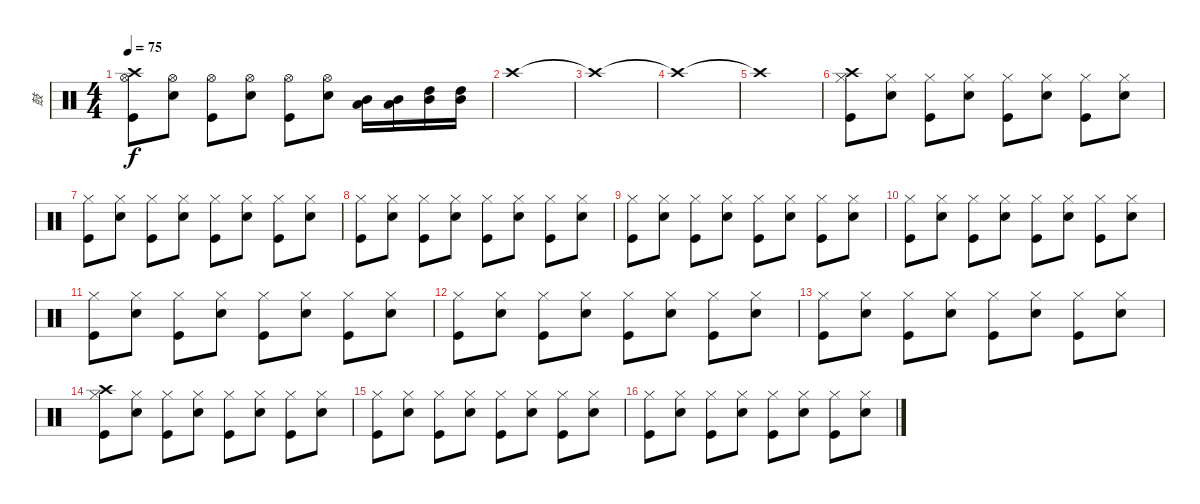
\track ("鼓" "鼓") {instrument percussion}
\staff {score}
\articulation defaults
\ts (4 4)
\tempo 75
\clef neutral
\ks c
("Crash high (hit)" "Hi-Hat (open)" "Kick (hit)").8{dy f} ("Hi-Hat (open)" "Electric Snare (hit)").8 ("Hi-Hat (open)" "Kick (hit)").8 ("Hi-Hat (open)" "Electric Snare (hit)").8 ("Hi-Hat (open)" "Kick (hit)").8 ("Hi-Hat (open)" "Electric Snare (hit)").8 ("Mid Tom (hit)" "Low Tom (hit)").16 ("Mid Tom (hit)" "Low Tom (hit)").16 ("High Tom (hit)" "Mid Tom (hit)").16 ("High Tom (hit)" "Mid Tom (hit)").16 |
"Crash high (hit)".1 |
"Crash high (hit)"{t}.1 |
"Crash high (hit)"{t}.1 |
"Crash high (hit)"{t}.1 |
("Crash high (hit)" "Hi-Hat (closed)" "Kick (hit)").8 ("Hi-Hat (closed)" "Electric Snare (hit)").8 ("Hi-Hat (closed)" "Kick (hit)").8 ("Hi-Hat (closed)" "Electric Snare (hit)").8 ("Hi-Hat (closed)" "Kick (hit)").8 ("Hi-Hat (closed)" "Electric Snare (hit)").8 ("Hi-Hat (closed)" "Kick (hit)").8 ("Hi-Hat (closed)" "Electric Snare (hit)").8 |
("Hi-Hat (closed)" "Kick (hit)").8 ("Hi-Hat (closed)" "Electric Snare (hit)").8 ("Hi-Hat (closed)" "Kick (hit)").8 ("Hi-Hat (closed)" "Electric Snare (hit)").8 ("Hi-Hat (closed)" "Kick (hit)").8 ("Hi-Hat (closed)" "Electric Snare (hit)").8 ("Hi-Hat (closed)" "Kick (hit)").8 ("Hi-Hat (closed)" "Electric Snare (hit)").8 |
("Hi-Hat (closed)" "Kick (hit)").8 ("Hi-Hat (closed)" "Electric Snare (hit)").8 ("Hi-Hat (closed)" "Kick (hit)").8 ("Hi-Hat (closed)" "Electric Snare (hit)").8 ("Hi-Hat (closed)" "Kick (hit)").8 ("Hi-Hat (closed)" "Electric Snare (hit)").8 ("Hi-Hat (closed)" "Kick (hit)").8 ("Hi-Hat (closed)" "Electric Snare (hit)").8 |
("Hi-Hat (closed)" "Kick (hit)").8 ("Hi-Hat (closed)" "Electric Snare (hit)").8 ("Hi-Hat (closed)" "Kick (hit)").8 ("Hi-Hat (closed)" "Electric Snare (hit)").8 ("Hi-Hat (closed)" "Kick (hit)").8 ("Hi-Hat (closed)" "Electric Snare (hit)").8 ("Hi-Hat (closed)" "Kick (hit)").8 ("Hi-Hat (closed)" "Electric Snare (hit)").8 |
("Hi-Hat (closed)" "Kick (hit)").8 ("Hi-Hat (closed)" "Electric Snare (hit)").8 ("Hi-Hat (closed)" "Kick (hit)").8 ("Hi-Hat (closed)" "Electric Snare (hit)").8 ("Hi-Hat (closed)" "Kick (hit)").8 ("Hi-Hat (closed)" "Electric Snare (hit)").8 ("Hi-Hat (closed)" "Kick (hit)").8 ("Hi-Hat (closed)" "Electric Snare (hit)").8 |
("Hi-Hat (closed)" "Kick (hit)").8 ("Hi-Hat (closed)" "Electric Snare (hit)").8 ("Hi-Hat (closed)" "Kick (hit)").8 ("Hi-Hat (closed)" "Electric Snare (hit)").8 ("Hi-Hat (closed)" "Kick (hit)").8 ("Hi-Hat (closed)" "Electric Snare (hit)").8 ("Hi-Hat (closed)" "Kick (hit)").8 ("Hi-Hat (closed)" "Electric Snare (hit)").8 |
("Hi-Hat (closed)" "Kick (hit)").8 ("Hi-Hat (closed)" "Electric Snare (hit)").8 ("Hi-Hat (closed)" "Kick (hit)").8 ("Hi-Hat (closed)" "Electric Snare (hit)").8 ("Hi-Hat (closed)" "Kick (hit)").8 ("Hi-Hat (closed)" "Electric Snare (hit)").8 ("Hi-Hat (closed)" "Kick (hit)").8 ("Hi-Hat (closed)" "Electric Snare (hit)").8 |
("Hi-Hat (closed)" "Kick (hit)").8 ("Hi-Hat (closed)" "Electric Snare (hit)").8 ("Hi-Hat (closed)" "Kick (hit)").8 ("Hi-Hat (closed)" "Electric Snare (hit)").8 ("Hi-Hat (closed)" "Kick (hit)").8 ("Hi-Hat (closed)" "Electric Snare (hit)").8 ("Hi-Hat (closed)" "Kick (hit)").8 ("Hi-Hat (closed)" "Electric Snare (hit)").8 |
("Crash high (hit)" "Hi-Hat (closed)" "Kick (hit)").8 ("Hi-Hat (closed)" "Electric Snare (hit)").8 ("Hi-Hat (closed)" "Kick (hit)").8 ("Hi-Hat (closed)" "Electric Snare (hit)").8 ("Hi-Hat (closed)" "Kick (hit)").8 ("Hi-Hat (closed)" "Electric Snare (hit)").8 ("Hi-Hat (closed)" "Kick (hit)").8 ("Hi-Hat (closed)" "Electric Snare (hit)").8 |
("Hi-Hat (closed)" "Kick (hit)").8 ("Hi-Hat (closed)" "Electric Snare (hit)").8 ("Hi-Hat (closed)" "Kick (hit)").8 ("Hi-Hat (closed)" "Electric Snare (hit)").8 ("Hi-Hat (closed)" "Kick (hit)").8 ("Hi-Hat (closed)" "Electric Snare (hit)").8 ("Hi-Hat (closed)" "Kick (hit)").8 ("Hi-Hat (closed)" "Electric Snare (hit)").8 |
("Hi-Hat (closed)" "Kick (hit)").8 ("Hi-Hat (closed)" "Electric Snare (hit)").8 ("Hi-Hat (closed)" "Kick (hit)").8 ("Hi-Hat (closed)" "Electric Snare (hit)").8 ("Hi-Hat (closed)" "Kick (hit)").8 ("Hi-Hat (closed)" "Electric Snare (hit)").8 ("Hi-Hat (closed)" "Kick (hit)").8 ("Hi-Hat (closed)" "Electric Snare (hit)").8
